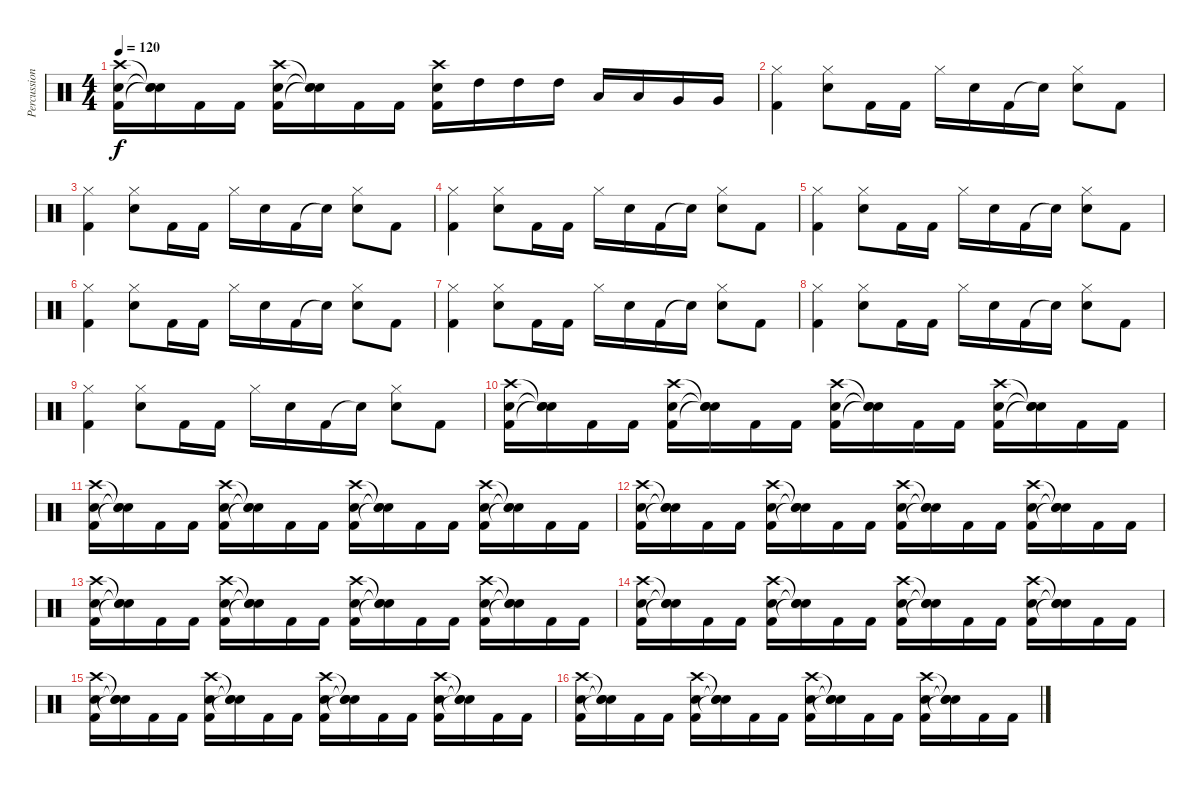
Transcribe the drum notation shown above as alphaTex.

\track ("Percussions" "Percussion") {instrument percussion}
\staff {score}
\articulation defaults
\ts (4 4)
\tempo 120
\clef neutral
\ks c
("Kick (hit) 2" "Electric Snare (hit)" "Crash high (hit)").16{dy f} ("Snare (hit)"{t} "Snare (hit)"{t} "Snare (hit)"{t}).16 "Kick (hit) 2".16 "Kick (hit) 2".16 ("Kick (hit) 2" "Electric Snare (hit)" "Crash high (hit)").16 ("Snare (hit)"{t} "Snare (hit)"{t} "Snare (hit)"{t}).16 "Kick (hit) 2".16 "Kick (hit) 2".16 ("Kick (hit) 2" "Electric Snare (hit)" "Crash high (hit)").16 "High Tom (hit)".16 "High Tom (hit)".16 "High Tom (hit)".16 "Low Tom (hit)".16 "Low Tom (hit)".16 "Very Low Tom (hit)".16 "Very Low Tom (hit)".16 |
("Kick (hit) 2" "Hi-Hat (closed)").4 ("Electric Snare (hit)" "Hi-Hat (closed)").8 "Kick (hit) 2".16 "Kick (hit) 2".16 "Hi-Hat (closed)".16 "Electric Snare (hit)".16 "Kick (hit) 2".16 "Snare (hit)"{t}.16 ("Electric Snare (hit)" "Hi-Hat (closed)").8 "Kick (hit) 2".8 |
("Kick (hit) 2" "Hi-Hat (closed)").4 ("Electric Snare (hit)" "Hi-Hat (closed)").8 "Kick (hit) 2".16 "Kick (hit) 2".16 "Hi-Hat (closed)".16 "Electric Snare (hit)".16 "Kick (hit) 2".16 "Snare (hit)"{t}.16 ("Electric Snare (hit)" "Hi-Hat (closed)").8 "Kick (hit) 2".8 |
("Kick (hit) 2" "Hi-Hat (closed)").4 ("Electric Snare (hit)" "Hi-Hat (closed)").8 "Kick (hit) 2".16 "Kick (hit) 2".16 "Hi-Hat (closed)".16 "Electric Snare (hit)".16 "Kick (hit) 2".16 "Snare (hit)"{t}.16 ("Electric Snare (hit)" "Hi-Hat (closed)").8 "Kick (hit) 2".8 |
("Kick (hit) 2" "Hi-Hat (closed)").4 ("Electric Snare (hit)" "Hi-Hat (closed)").8 "Kick (hit) 2".16 "Kick (hit) 2".16 "Hi-Hat (closed)".16 "Electric Snare (hit)".16 "Kick (hit) 2".16 "Snare (hit)"{t}.16 ("Electric Snare (hit)" "Hi-Hat (closed)").8 "Kick (hit) 2".8 |
("Kick (hit) 2" "Hi-Hat (closed)").4 ("Electric Snare (hit)" "Hi-Hat (closed)").8 "Kick (hit) 2".16 "Kick (hit) 2".16 "Hi-Hat (closed)".16 "Electric Snare (hit)".16 "Kick (hit) 2".16 "Snare (hit)"{t}.16 ("Electric Snare (hit)" "Hi-Hat (closed)").8 "Kick (hit) 2".8 |
("Kick (hit) 2" "Hi-Hat (closed)").4 ("Electric Snare (hit)" "Hi-Hat (closed)").8 "Kick (hit) 2".16 "Kick (hit) 2".16 "Hi-Hat (closed)".16 "Electric Snare (hit)".16 "Kick (hit) 2".16 "Snare (hit)"{t}.16 ("Electric Snare (hit)" "Hi-Hat (closed)").8 "Kick (hit) 2".8 |
("Kick (hit) 2" "Hi-Hat (closed)").4 ("Electric Snare (hit)" "Hi-Hat (closed)").8 "Kick (hit) 2".16 "Kick (hit) 2".16 "Hi-Hat (closed)".16 "Electric Snare (hit)".16 "Kick (hit) 2".16 "Snare (hit)"{t}.16 ("Electric Snare (hit)" "Hi-Hat (closed)").8 "Kick (hit) 2".8 |
("Kick (hit) 2" "Hi-Hat (closed)").4 ("Electric Snare (hit)" "Hi-Hat (closed)").8 "Kick (hit) 2".16 "Kick (hit) 2".16 "Hi-Hat (closed)".16 "Electric Snare (hit)".16 "Kick (hit) 2".16 "Snare (hit)"{t}.16 ("Electric Snare (hit)" "Hi-Hat (closed)").8 "Kick (hit) 2".8 |
("Kick (hit) 2" "Electric Snare (hit)" "Crash high (hit)").16 ("Snare (hit)"{t} "Snare (hit)"{t} "Snare (hit)"{t}).16 "Kick (hit) 2".16 "Kick (hit) 2".16 ("Kick (hit) 2" "Electric Snare (hit)" "Crash high (hit)").16 ("Snare (hit)"{t} "Snare (hit)"{t} "Snare (hit)"{t}).16 "Kick (hit) 2".16 "Kick (hit) 2".16 ("Kick (hit) 2" "Electric Snare (hit)" "Crash high (hit)").16 ("Snare (hit)"{t} "Snare (hit)"{t} "Snare (hit)"{t}).16 "Kick (hit) 2".16 "Kick (hit) 2".16 ("Kick (hit) 2" "Electric Snare (hit)" "Crash high (hit)").16 ("Snare (hit)"{t} "Snare (hit)"{t} "Snare (hit)"{t}).16 "Kick (hit) 2".16 "Kick (hit) 2".16 |
("Kick (hit) 2" "Electric Snare (hit)" "Crash high (hit)").16 ("Snare (hit)"{t} "Snare (hit)"{t} "Snare (hit)"{t}).16 "Kick (hit) 2".16 "Kick (hit) 2".16 ("Kick (hit) 2" "Electric Snare (hit)" "Crash high (hit)").16 ("Snare (hit)"{t} "Snare (hit)"{t} "Snare (hit)"{t}).16 "Kick (hit) 2".16 "Kick (hit) 2".16 ("Kick (hit) 2" "Electric Snare (hit)" "Crash high (hit)").16 ("Snare (hit)"{t} "Snare (hit)"{t} "Snare (hit)"{t}).16 "Kick (hit) 2".16 "Kick (hit) 2".16 ("Kick (hit) 2" "Electric Snare (hit)" "Crash high (hit)").16 ("Snare (hit)"{t} "Snare (hit)"{t} "Snare (hit)"{t}).16 "Kick (hit) 2".16 "Kick (hit) 2".16 |
("Kick (hit) 2" "Electric Snare (hit)" "Crash high (hit)").16 ("Snare (hit)"{t} "Snare (hit)"{t} "Snare (hit)"{t}).16 "Kick (hit) 2".16 "Kick (hit) 2".16 ("Kick (hit) 2" "Electric Snare (hit)" "Crash high (hit)").16 ("Snare (hit)"{t} "Snare (hit)"{t} "Snare (hit)"{t}).16 "Kick (hit) 2".16 "Kick (hit) 2".16 ("Kick (hit) 2" "Electric Snare (hit)" "Crash high (hit)").16 ("Snare (hit)"{t} "Snare (hit)"{t} "Snare (hit)"{t}).16 "Kick (hit) 2".16 "Kick (hit) 2".16 ("Kick (hit) 2" "Electric Snare (hit)" "Crash high (hit)").16 ("Snare (hit)"{t} "Snare (hit)"{t} "Snare (hit)"{t}).16 "Kick (hit) 2".16 "Kick (hit) 2".16 |
("Kick (hit) 2" "Electric Snare (hit)" "Crash high (hit)").16 ("Snare (hit)"{t} "Snare (hit)"{t} "Snare (hit)"{t}).16 "Kick (hit) 2".16 "Kick (hit) 2".16 ("Kick (hit) 2" "Electric Snare (hit)" "Crash high (hit)").16 ("Snare (hit)"{t} "Snare (hit)"{t} "Snare (hit)"{t}).16 "Kick (hit) 2".16 "Kick (hit) 2".16 ("Kick (hit) 2" "Electric Snare (hit)" "Crash high (hit)").16 ("Snare (hit)"{t} "Snare (hit)"{t} "Snare (hit)"{t}).16 "Kick (hit) 2".16 "Kick (hit) 2".16 ("Kick (hit) 2" "Electric Snare (hit)" "Crash high (hit)").16 ("Snare (hit)"{t} "Snare (hit)"{t} "Snare (hit)"{t}).16 "Kick (hit) 2".16 "Kick (hit) 2".16 |
("Kick (hit) 2" "Electric Snare (hit)" "Crash high (hit)").16 ("Snare (hit)"{t} "Snare (hit)"{t} "Snare (hit)"{t}).16 "Kick (hit) 2".16 "Kick (hit) 2".16 ("Kick (hit) 2" "Electric Snare (hit)" "Crash high (hit)").16 ("Snare (hit)"{t} "Snare (hit)"{t} "Snare (hit)"{t}).16 "Kick (hit) 2".16 "Kick (hit) 2".16 ("Kick (hit) 2" "Electric Snare (hit)" "Crash high (hit)").16 ("Snare (hit)"{t} "Snare (hit)"{t} "Snare (hit)"{t}).16 "Kick (hit) 2".16 "Kick (hit) 2".16 ("Kick (hit) 2" "Electric Snare (hit)" "Crash high (hit)").16 ("Snare (hit)"{t} "Snare (hit)"{t} "Snare (hit)"{t}).16 "Kick (hit) 2".16 "Kick (hit) 2".16 |
("Kick (hit) 2" "Electric Snare (hit)" "Crash high (hit)").16 ("Snare (hit)"{t} "Snare (hit)"{t} "Snare (hit)"{t}).16 "Kick (hit) 2".16 "Kick (hit) 2".16 ("Kick (hit) 2" "Electric Snare (hit)" "Crash high (hit)").16 ("Snare (hit)"{t} "Snare (hit)"{t} "Snare (hit)"{t}).16 "Kick (hit) 2".16 "Kick (hit) 2".16 ("Kick (hit) 2" "Electric Snare (hit)" "Crash high (hit)").16 ("Snare (hit)"{t} "Snare (hit)"{t} "Snare (hit)"{t}).16 "Kick (hit) 2".16 "Kick (hit) 2".16 ("Kick (hit) 2" "Electric Snare (hit)" "Crash high (hit)").16 ("Snare (hit)"{t} "Snare (hit)"{t} "Snare (hit)"{t}).16 "Kick (hit) 2".16 "Kick (hit) 2".16 |
("Kick (hit) 2" "Electric Snare (hit)" "Crash high (hit)").16 ("Snare (hit)"{t} "Snare (hit)"{t} "Snare (hit)"{t}).16 "Kick (hit) 2".16 "Kick (hit) 2".16 ("Kick (hit) 2" "Electric Snare (hit)" "Crash high (hit)").16 ("Snare (hit)"{t} "Snare (hit)"{t} "Snare (hit)"{t}).16 "Kick (hit) 2".16 "Kick (hit) 2".16 ("Kick (hit) 2" "Electric Snare (hit)" "Crash high (hit)").16 ("Snare (hit)"{t} "Snare (hit)"{t} "Snare (hit)"{t}).16 "Kick (hit) 2".16 "Kick (hit) 2".16 ("Kick (hit) 2" "Electric Snare (hit)" "Crash high (hit)").16 ("Snare (hit)"{t} "Snare (hit)"{t} "Snare (hit)"{t}).16 "Kick (hit) 2".16 "Kick (hit) 2".16
